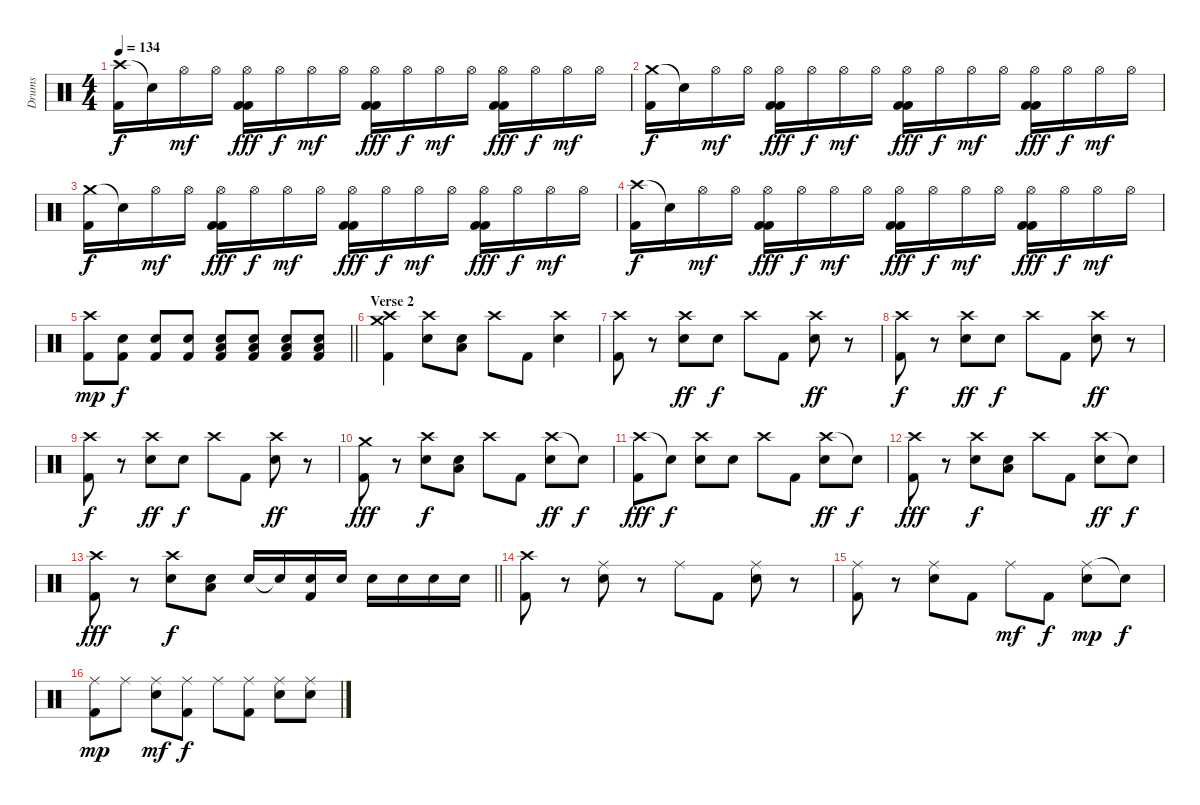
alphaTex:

\track ("Drums" "Drums") {instrument percussion}
\staff {score}
\articulation defaults
\ts (4 4)
\tempo 134
\clef neutral
\ks c
("Crash high (hit)" "Kick (hit) 2").16{dy f} "Snare (hit)"{t}.16 "Hi-Hat (open)".16{dy mf} "Hi-Hat (open)".16 ("Hi-Hat (open)" "Kick (hit) 2" "Kick (hit) 2").16{dy fff} "Hi-Hat (open)".16{dy f} "Hi-Hat (open)".16{dy mf} "Hi-Hat (open)".16 ("Hi-Hat (open)" "Kick (hit) 2" "Kick (hit) 2").16{dy fff} "Hi-Hat (open)".16{dy f} "Hi-Hat (open)".16{dy mf} "Hi-Hat (open)".16 ("Hi-Hat (open)" "Kick (hit) 2" "Kick (hit) 2").16{dy fff} "Hi-Hat (open)".16{dy f} "Hi-Hat (open)".16{dy mf} "Hi-Hat (open)".16 |
("Crash medium (hit)" "Kick (hit) 2").16{dy f} "Snare (hit)"{t}.16 "Hi-Hat (open)".16{dy mf} "Hi-Hat (open)".16 ("Hi-Hat (open)" "Kick (hit) 2" "Kick (hit) 2").16{dy fff} "Hi-Hat (open)".16{dy f} "Hi-Hat (open)".16{dy mf} "Hi-Hat (open)".16 ("Hi-Hat (open)" "Kick (hit) 2" "Kick (hit) 2").16{dy fff} "Hi-Hat (open)".16{dy f} "Hi-Hat (open)".16{dy mf} "Hi-Hat (open)".16 ("Hi-Hat (open)" "Kick (hit) 2" "Kick (hit) 2").16{dy fff} "Hi-Hat (open)".16{dy f} "Hi-Hat (open)".16{dy mf} "Hi-Hat (open)".16 |
("Crash medium (hit)" "Kick (hit) 2").16{dy f} "Snare (hit)"{t}.16 "Hi-Hat (open)".16{dy mf} "Hi-Hat (open)".16 ("Hi-Hat (open)" "Kick (hit) 2" "Kick (hit) 2").16{dy fff} "Hi-Hat (open)".16{dy f} "Hi-Hat (open)".16{dy mf} "Hi-Hat (open)".16 ("Hi-Hat (open)" "Kick (hit) 2" "Kick (hit) 2").16{dy fff} "Hi-Hat (open)".16{dy f} "Hi-Hat (open)".16{dy mf} "Hi-Hat (open)".16 ("Hi-Hat (open)" "Kick (hit) 2" "Kick (hit) 2").16{dy fff} "Hi-Hat (open)".16{dy f} "Hi-Hat (open)".16{dy mf} "Hi-Hat (open)".16 |
("Crash high (hit)" "Kick (hit) 2").16{dy f} "Snare (hit)"{t}.16 "Hi-Hat (open)".16{dy mf} "Hi-Hat (open)".16 ("Hi-Hat (open)" "Kick (hit) 2" "Kick (hit) 2").16{dy fff} "Hi-Hat (open)".16{dy f} "Hi-Hat (open)".16{dy mf} "Hi-Hat (open)".16 ("Hi-Hat (open)" "Kick (hit) 2" "Kick (hit) 2").16{dy fff} "Hi-Hat (open)".16{dy f} "Hi-Hat (open)".16{dy mf} "Hi-Hat (open)".16 ("Hi-Hat (open)" "Kick (hit) 2" "Kick (hit) 2").16{dy fff} "Hi-Hat (open)".16{dy f} "Hi-Hat (open)".16{dy mf} "Hi-Hat (open)".16 |
\barLineRight lightlight
("Crash high (hit)" "Kick (hit) 2").8{dy mp} ("Electric Snare (hit)" "Kick (hit) 2").8{dy f} ("Electric Snare (hit)" "Kick (hit) 2").8 ("Electric Snare (hit)" "Kick (hit) 2").8 ("Electric Snare (hit)" "Low Floor Tom (hit)" "Kick (hit) 2").8 ("Electric Snare (hit)" "Low Floor Tom (hit)" "Kick (hit) 2").8 ("Electric Snare (hit)" "Low Floor Tom (hit)" "Kick (hit) 2").8 ("Electric Snare (hit)" "Low Floor Tom (hit)" "Kick (hit) 2").8 |
\section ("" "Verse 2")
("Crash medium (hit)" "Crash high (hit)" "Kick (hit) 2").4 ("Crash high (hit)" "Snare (hit) 2").8 ("Snare (hit) 2" "Low Tom (hit)").8 "Crash high (hit)".8 "Kick (hit) 2".8 ("Crash high (hit)" "Snare (hit) 2").4 |
("Crash high (hit)" "Kick (hit) 2").8 r.8 ("Crash high (hit)" "Snare (hit) 2").8{dy ff} "Snare (hit) 2".8{dy f} "Crash high (hit)".8 "Kick (hit) 2".8 ("Crash high (hit)" "Snare (hit) 2").8{dy ff} r.8 |
("Crash high (hit)" "Kick (hit) 2").8{dy f} r.8 ("Crash high (hit)" "Snare (hit) 2").8{dy ff} "Snare (hit) 2".8{dy f} "Crash high (hit)".8 "Kick (hit) 2".8 ("Crash high (hit)" "Snare (hit) 2").8{dy ff} r.8 |
("Crash high (hit)" "Kick (hit) 2").8{dy f} r.8 ("Crash high (hit)" "Snare (hit) 2").8{dy ff} "Snare (hit) 2".8{dy f} "Crash high (hit)".8 "Kick (hit) 2".8 ("Crash high (hit)" "Snare (hit) 2").8{dy ff} r.8 |
("Crash medium (hit)" "Kick (hit) 2").8{dy fff} r.8 ("Crash high (hit)" "Snare (hit) 2").8{dy f} ("Snare (hit) 2" "Low Tom (hit)").8 "Crash high (hit)".8 "Kick (hit) 2".8 ("Crash high (hit)" "Snare (hit) 2").8{dy ff} "Snare (hit)"{t}.8{dy f} |
("Crash high (hit)" "Kick (hit) 2").8{dy fff} "Snare (hit)"{t}.8{dy f} ("Crash high (hit)" "Snare (hit) 2").8 "Snare (hit) 2".8 "Crash high (hit)".8 "Kick (hit) 2".8 ("Crash high (hit)" "Snare (hit) 2").8{dy ff} "Snare (hit)"{t}.8{dy f} |
("Crash high (hit)" "Kick (hit) 2").8{dy fff} r.8 ("Crash high (hit)" "Snare (hit) 2").8{dy f} ("Snare (hit) 2" "Low Tom (hit)").8 "Crash high (hit)".8 "Kick (hit) 2".8 ("Crash high (hit)" "Snare (hit) 2").8{dy ff} "Snare (hit)"{t}.8{dy f} |
\barLineRight lightlight
("Crash high (hit)" "Kick (hit) 2").8{dy fff} r.8 ("Crash high (hit)" "Snare (hit) 2").8{dy f} ("Snare (hit) 2" "Low Tom (hit)").8 "Snare (hit) 2".16 "Snare (hit)"{t}.16 ("Snare (hit) 2" "Kick (hit) 2").16 "Snare (hit) 2".16 "Snare (hit) 2".16 "Snare (hit) 2".16 "Snare (hit) 2".16 "Snare (hit) 2".16 |
("Crash high (hit)" "Kick (hit) 2").8 r.8 ("Ride (middle)" "Snare (hit) 2").8 r.8 "Ride (middle)".8 "Kick (hit) 2".8 ("Ride (middle)" "Snare (hit) 2").8 r.8 |
("Ride (middle)" "Kick (hit) 2").8 r.8 ("Ride (middle)" "Snare (hit) 2").8 "Kick (hit) 2".8 "Ride (middle)".8{dy mf} "Kick (hit) 2".8{dy f} ("Ride (middle)" "Snare (hit) 2").8{dy mp} "Snare (hit)"{t}.8{dy f} |
("Ride (middle)" "Kick (hit) 2").8{dy mp} "Ride (middle)".8 ("Ride (middle)" "Snare (hit) 2").8{dy mf} ("Ride (middle)" "Kick (hit) 2").8{dy f} "Ride (middle)".8 ("Ride (middle)" "Kick (hit) 2").8 ("Ride (middle)" "Snare (hit) 2").8 ("Ride (middle)" "Snare (hit) 2").8
